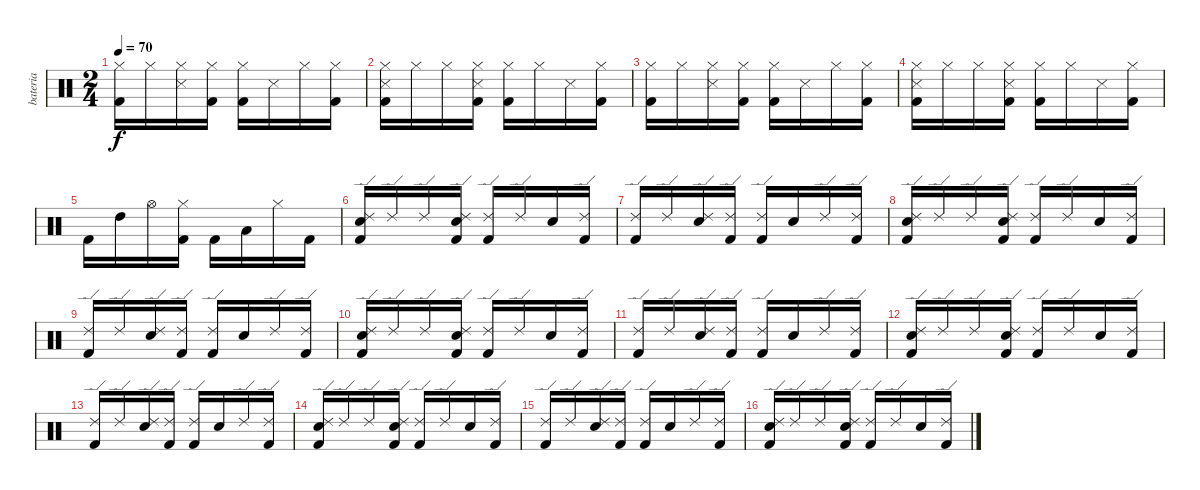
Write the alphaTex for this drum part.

\track ("bateria" "bateria") {instrument percussion}
\staff {score}
\articulation defaults
\ts (2 4)
\tempo 70
\clef neutral
\ks c
("Hi-Hat (closed)" "Kick (hit) 2").16{dy f} "Hi-Hat (closed)".16 ("Hi-Hat (closed)" "Snare (side stick) 3").16 ("Hi-Hat (closed)" "Kick (hit) 2").16 ("Hi-Hat (closed)" "Kick (hit) 2").16 "Snare (side stick) 3".16 "Hi-Hat (closed)".16 ("Hi-Hat (closed)" "Kick (hit) 2").16 |
("Hi-Hat (closed)" "Snare (side stick) 3" "Kick (hit) 2").16 "Hi-Hat (closed)".16 "Hi-Hat (closed)".16 ("Hi-Hat (closed)" "Snare (side stick) 3" "Kick (hit) 2").16 ("Hi-Hat (closed)" "Kick (hit) 2").16 "Hi-Hat (closed)".16 "Snare (side stick) 3".16 ("Hi-Hat (closed)" "Kick (hit) 2").16 |
("Hi-Hat (closed)" "Kick (hit) 2").16 "Hi-Hat (closed)".16 ("Hi-Hat (closed)" "Snare (side stick) 3").16 ("Hi-Hat (closed)" "Kick (hit) 2").16 ("Hi-Hat (closed)" "Kick (hit) 2").16 "Snare (side stick) 3".16 "Hi-Hat (closed)".16 ("Hi-Hat (closed)" "Kick (hit) 2").16 |
("Hi-Hat (closed)" "Snare (side stick) 3" "Kick (hit) 2").16 "Hi-Hat (closed)".16 "Hi-Hat (closed)".16 ("Hi-Hat (closed)" "Snare (side stick) 3" "Kick (hit) 2").16 ("Hi-Hat (closed)" "Kick (hit) 2").16 "Hi-Hat (closed)".16 "Snare (side stick) 3".16 ("Hi-Hat (closed)" "Kick (hit) 2").16 |
"Kick (hit) 2".16 "High Tom (hit)".16 "Hi-Hat (open)".16 ("Hi-Hat (closed)" "Kick (hit) 2").16 "Kick (hit) 2".16 "Low Tom (hit)".16 "Hi-Hat (closed)".16 "Kick (hit) 2".16 |
("Ride (edge) 2" "Snare (hit) 2" "Kick (hit) 2").16 "Ride (edge) 2".16 "Ride (edge) 2".16 ("Ride (edge) 2" "Snare (hit) 2" "Kick (hit) 2").16 ("Ride (edge) 2" "Kick (hit) 2").16 "Ride (edge) 2".16 "Snare (hit) 2".16 ("Ride (edge) 2" "Kick (hit) 2").16 |
("Ride (edge) 2" "Kick (hit) 2").16 "Ride (edge) 2".16 ("Ride (edge) 2" "Snare (hit) 2").16 ("Ride (edge) 2" "Kick (hit) 2").16 ("Ride (edge) 2" "Kick (hit) 2").16 "Snare (hit) 2".16 "Ride (edge) 2".16 ("Ride (edge) 2" "Kick (hit) 2").16 |
("Ride (edge) 2" "Snare (hit) 2" "Kick (hit) 2").16 "Ride (edge) 2".16 "Ride (edge) 2".16 ("Ride (edge) 2" "Snare (hit) 2" "Kick (hit) 2").16 ("Ride (edge) 2" "Kick (hit) 2").16 "Ride (edge) 2".16 "Snare (hit) 2".16 ("Ride (edge) 2" "Kick (hit) 2").16 |
("Ride (edge) 2" "Kick (hit) 2").16 "Ride (edge) 2".16 ("Ride (edge) 2" "Snare (hit) 2").16 ("Ride (edge) 2" "Kick (hit) 2").16 ("Ride (edge) 2" "Kick (hit) 2").16 "Snare (hit) 2".16 "Ride (edge) 2".16 ("Ride (edge) 2" "Kick (hit) 2").16 |
("Ride (edge) 2" "Snare (hit) 2" "Kick (hit) 2").16 "Ride (edge) 2".16 "Ride (edge) 2".16 ("Ride (edge) 2" "Snare (hit) 2" "Kick (hit) 2").16 ("Ride (edge) 2" "Kick (hit) 2").16 "Ride (edge) 2".16 "Snare (hit) 2".16 ("Ride (edge) 2" "Kick (hit) 2").16 |
("Ride (edge) 2" "Kick (hit) 2").16 "Ride (edge) 2".16 ("Ride (edge) 2" "Snare (hit) 2").16 ("Ride (edge) 2" "Kick (hit) 2").16 ("Ride (edge) 2" "Kick (hit) 2").16 "Snare (hit) 2".16 "Ride (edge) 2".16 ("Ride (edge) 2" "Kick (hit) 2").16 |
("Ride (edge) 2" "Snare (hit) 2" "Kick (hit) 2").16 "Ride (edge) 2".16 "Ride (edge) 2".16 ("Ride (edge) 2" "Snare (hit) 2" "Kick (hit) 2").16 ("Ride (edge) 2" "Kick (hit) 2").16 "Ride (edge) 2".16 "Snare (hit) 2".16 ("Ride (edge) 2" "Kick (hit) 2").16 |
("Ride (edge) 2" "Kick (hit) 2").16 "Ride (edge) 2".16 ("Ride (edge) 2" "Snare (hit) 2").16 ("Ride (edge) 2" "Kick (hit) 2").16 ("Ride (edge) 2" "Kick (hit) 2").16 "Snare (hit) 2".16 "Ride (edge) 2".16 ("Ride (edge) 2" "Kick (hit) 2").16 |
("Ride (edge) 2" "Snare (hit) 2" "Kick (hit) 2").16 "Ride (edge) 2".16 "Ride (edge) 2".16 ("Ride (edge) 2" "Snare (hit) 2" "Kick (hit) 2").16 ("Ride (edge) 2" "Kick (hit) 2").16 "Ride (edge) 2".16 "Snare (hit) 2".16 ("Ride (edge) 2" "Kick (hit) 2").16 |
("Ride (edge) 2" "Kick (hit) 2").16 "Ride (edge) 2".16 ("Ride (edge) 2" "Snare (hit) 2").16 ("Ride (edge) 2" "Kick (hit) 2").16 ("Ride (edge) 2" "Kick (hit) 2").16 "Snare (hit) 2".16 "Ride (edge) 2".16 ("Ride (edge) 2" "Kick (hit) 2").16 |
("Ride (edge) 2" "Snare (hit) 2" "Kick (hit) 2").16 "Ride (edge) 2".16 "Ride (edge) 2".16 ("Ride (edge) 2" "Snare (hit) 2" "Kick (hit) 2").16 ("Ride (edge) 2" "Kick (hit) 2").16 "Ride (edge) 2".16 "Snare (hit) 2".16 ("Ride (edge) 2" "Kick (hit) 2").16
